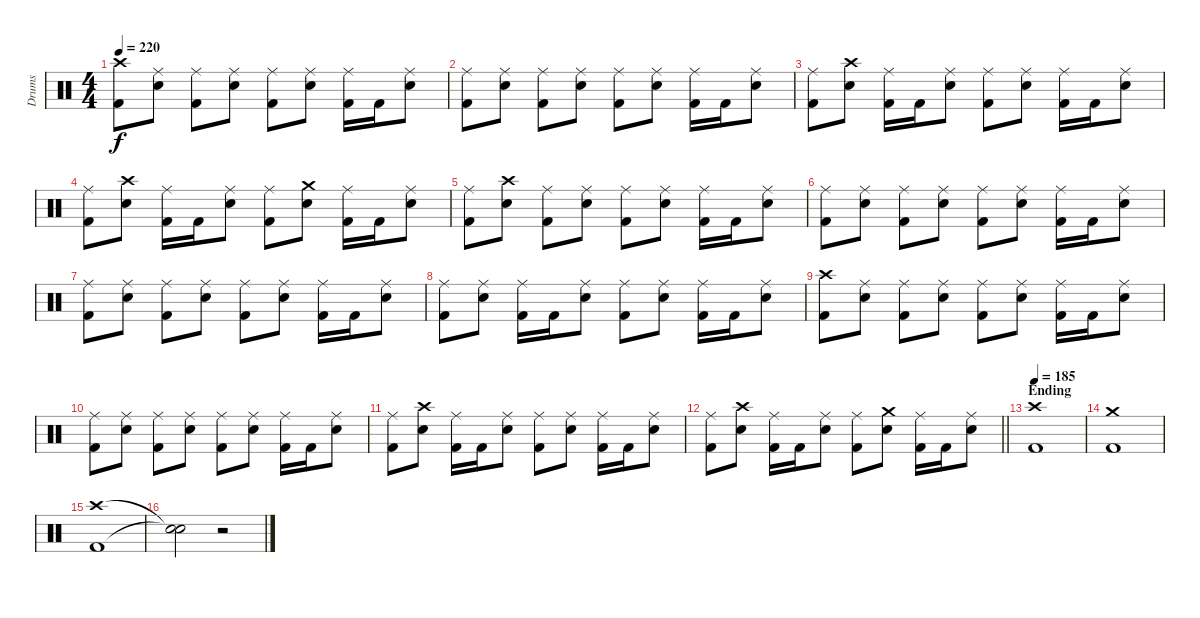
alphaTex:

\track ("Drums" "Drums") {instrument percussion}
\staff {score}
\articulation defaults
\ts (4 4)
\tempo 220
\clef neutral
\ks c
("Crash high (hit)" "Kick (hit) 2").8{dy f} ("Ride (middle)" "Snare (hit) 2").8 ("Ride (middle)" "Kick (hit) 2").8 ("Ride (middle)" "Snare (hit) 2").8 ("Ride (middle)" "Kick (hit) 2").8 ("Ride (middle)" "Snare (hit) 2").8 ("Ride (middle)" "Kick (hit) 2").16 "Kick (hit) 2".16 ("Ride (middle)" "Snare (hit) 2").8 |
("Ride (middle)" "Kick (hit) 2").8 ("Ride (middle)" "Snare (hit) 2").8 ("Ride (middle)" "Kick (hit) 2").8 ("Ride (middle)" "Snare (hit) 2").8 ("Ride (middle)" "Kick (hit) 2").8 ("Ride (middle)" "Snare (hit) 2").8 ("Ride (middle)" "Kick (hit) 2").16 "Kick (hit) 2".16 ("Ride (middle)" "Snare (hit) 2").8 |
("Ride (middle)" "Kick (hit) 2").8 ("Crash high (hit)" "Snare (hit) 2").8 ("Ride (middle)" "Kick (hit) 2").16 "Kick (hit) 2".16 ("Ride (middle)" "Snare (hit) 2").8 ("Ride (middle)" "Kick (hit) 2").8 ("Ride (middle)" "Snare (hit) 2").8 ("Ride (middle)" "Kick (hit) 2").16 "Kick (hit) 2".16 ("Ride (middle)" "Snare (hit) 2").8 |
("Ride (middle)" "Kick (hit) 2").8 ("Crash high (hit)" "Snare (hit) 2").8 ("Ride (middle)" "Kick (hit) 2").16 "Kick (hit) 2".16 ("Ride (middle)" "Snare (hit) 2").8 ("Ride (middle)" "Kick (hit) 2").8 ("Crash medium (hit)" "Snare (hit) 2").8 ("Ride (middle)" "Kick (hit) 2").16 "Kick (hit) 2".16 ("Ride (middle)" "Snare (hit) 2").8 |
("Ride (middle)" "Kick (hit) 2").8 ("Crash high (hit)" "Snare (hit) 2").8 ("Ride (middle)" "Kick (hit) 2").8 ("Ride (middle)" "Snare (hit) 2").8 ("Ride (middle)" "Kick (hit) 2").8 ("Ride (middle)" "Snare (hit) 2").8 ("Ride (middle)" "Kick (hit) 2").16 "Kick (hit) 2".16 ("Ride (middle)" "Snare (hit) 2").8 |
("Ride (middle)" "Kick (hit) 2").8 ("Ride (middle)" "Snare (hit) 2").8 ("Ride (middle)" "Kick (hit) 2").8 ("Ride (middle)" "Snare (hit) 2").8 ("Ride (middle)" "Kick (hit) 2").8 ("Ride (middle)" "Snare (hit) 2").8 ("Ride (middle)" "Kick (hit) 2").16 "Kick (hit) 2".16 ("Ride (middle)" "Snare (hit) 2").8 |
("Ride (middle)" "Kick (hit) 2").8 ("Ride (middle)" "Snare (hit) 2").8 ("Ride (middle)" "Kick (hit) 2").8 ("Ride (middle)" "Snare (hit) 2").8 ("Ride (middle)" "Kick (hit) 2").8 ("Ride (middle)" "Snare (hit) 2").8 ("Ride (middle)" "Kick (hit) 2").16 "Kick (hit) 2".16 ("Ride (middle)" "Snare (hit) 2").8 |
("Ride (middle)" "Kick (hit) 2").8 ("Ride (middle)" "Snare (hit) 2").8 ("Ride (middle)" "Kick (hit) 2").16 "Kick (hit) 2".16 ("Ride (middle)" "Snare (hit) 2").8 ("Ride (middle)" "Kick (hit) 2").8 ("Ride (middle)" "Snare (hit) 2").8 ("Ride (middle)" "Kick (hit) 2").16 "Kick (hit) 2".16 ("Ride (middle)" "Snare (hit) 2").8 |
("Crash high (hit)" "Kick (hit) 2").8 ("Ride (middle)" "Snare (hit) 2").8 ("Ride (middle)" "Kick (hit) 2").8 ("Ride (middle)" "Snare (hit) 2").8 ("Ride (middle)" "Kick (hit) 2").8 ("Ride (middle)" "Snare (hit) 2").8 ("Ride (middle)" "Kick (hit) 2").16 "Kick (hit) 2".16 ("Ride (middle)" "Snare (hit) 2").8 |
("Ride (middle)" "Kick (hit) 2").8 ("Ride (middle)" "Snare (hit) 2").8 ("Ride (middle)" "Kick (hit) 2").8 ("Ride (middle)" "Snare (hit) 2").8 ("Ride (middle)" "Kick (hit) 2").8 ("Ride (middle)" "Snare (hit) 2").8 ("Ride (middle)" "Kick (hit) 2").16 "Kick (hit) 2".16 ("Ride (middle)" "Snare (hit) 2").8 |
("Ride (middle)" "Kick (hit) 2").8 ("Crash high (hit)" "Snare (hit) 2").8 ("Ride (middle)" "Kick (hit) 2").16 "Kick (hit) 2".16 ("Ride (middle)" "Snare (hit) 2").8 ("Ride (middle)" "Kick (hit) 2").8 ("Ride (middle)" "Snare (hit) 2").8 ("Ride (middle)" "Kick (hit) 2").16 "Kick (hit) 2".16 ("Ride (middle)" "Snare (hit) 2").8 |
\barLineRight lightlight
("Ride (middle)" "Kick (hit) 2").8 ("Crash high (hit)" "Snare (hit) 2").8 ("Ride (middle)" "Kick (hit) 2").16 "Kick (hit) 2".16 ("Ride (middle)" "Snare (hit) 2").8 ("Ride (middle)" "Kick (hit) 2").8 ("Crash medium (hit)" "Snare (hit) 2").8 ("Ride (middle)" "Kick (hit) 2").16 "Kick (hit) 2".16 ("Ride (middle)" "Snare (hit) 2").8 |
\section ("" "Ending")
\tempo 185
("Crash high (hit)" "Kick (hit) 2").1 |
("Crash medium (hit)" "Kick (hit) 2").1 |
("Crash high (hit)" "Kick (hit) 2").1 |
("Snare (hit)"{t} "Snare (hit)"{t}).2 r.2
